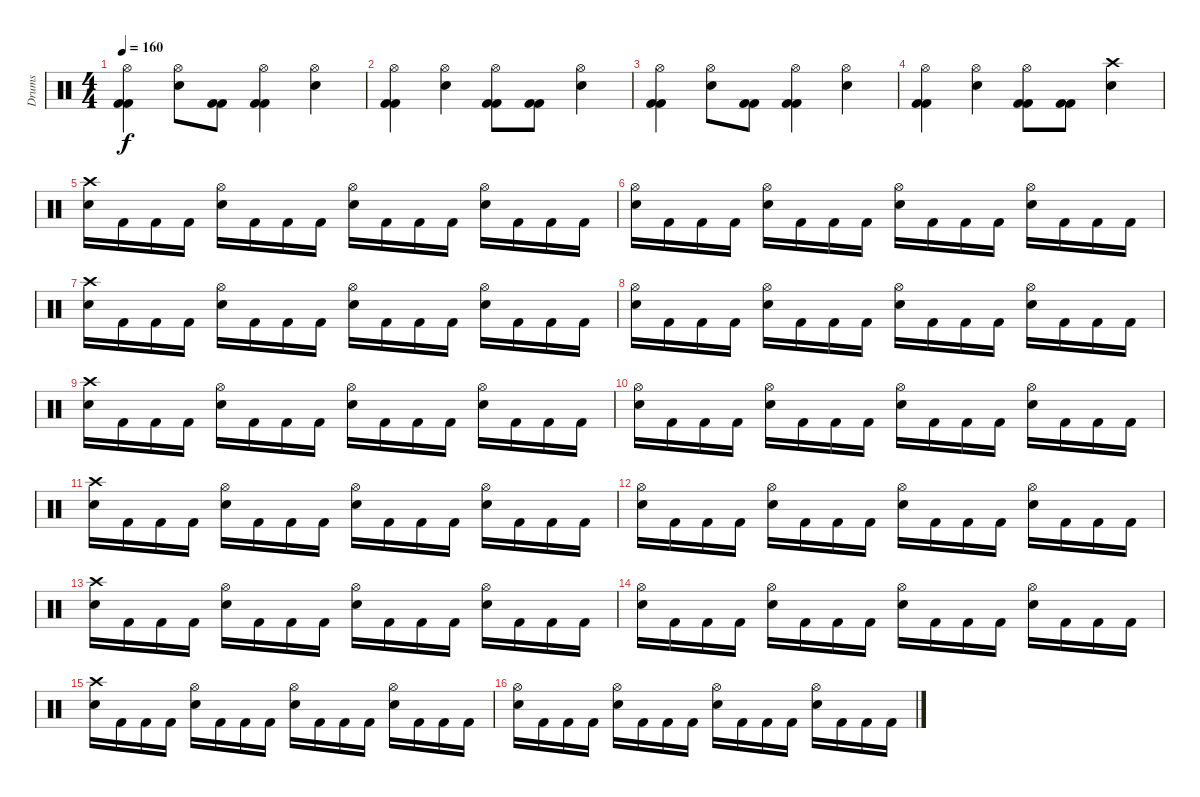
\track ("Drums" "Drums") {instrument percussion}
\staff {score}
\articulation defaults
\ts (4 4)
\tempo 160
\clef neutral
\ks c
("Hi-Hat (open)" "Kick (hit) 2" "Kick (hit) 2").4{dy f} ("Electric Snare (hit)" "Hi-Hat (open)").8 ("Kick (hit) 2" "Kick (hit) 2").8 ("Hi-Hat (open)" "Kick (hit) 2" "Kick (hit) 2").4 ("Electric Snare (hit)" "Hi-Hat (open)").4 |
("Hi-Hat (open)" "Kick (hit) 2" "Kick (hit) 2").4 ("Electric Snare (hit)" "Hi-Hat (open)").4 ("Hi-Hat (open)" "Kick (hit) 2" "Kick (hit) 2").8 ("Kick (hit) 2" "Kick (hit) 2").8 ("Hi-Hat (open)" "Electric Snare (hit)").4 |
("Hi-Hat (open)" "Kick (hit) 2" "Kick (hit) 2").4 ("Electric Snare (hit)" "Hi-Hat (open)").8 ("Kick (hit) 2" "Kick (hit) 2").8 ("Hi-Hat (open)" "Kick (hit) 2" "Kick (hit) 2").4 ("Electric Snare (hit)" "Hi-Hat (open)").4 |
("Hi-Hat (open)" "Kick (hit) 2" "Kick (hit) 2").4 ("Electric Snare (hit)" "Hi-Hat (open)").4 ("Hi-Hat (open)" "Kick (hit) 2" "Kick (hit) 2").8 ("Kick (hit) 2" "Kick (hit) 2").8 ("Crash high (hit)" "Electric Snare (hit)").4 |
("Crash high (hit)" "Electric Snare (hit)").16 "Kick (hit) 2".16 "Kick (hit) 2".16 "Kick (hit) 2".16 ("Electric Snare (hit)" "Hi-Hat (open)").16 "Kick (hit) 2".16 "Kick (hit) 2".16 "Kick (hit) 2".16 ("Hi-Hat (open)" "Electric Snare (hit)").16 "Kick (hit) 2".16 "Kick (hit) 2".16 "Kick (hit) 2".16 ("Electric Snare (hit)" "Hi-Hat (open)").16 "Kick (hit) 2".16 "Kick (hit) 2".16 "Kick (hit) 2".16 |
("Hi-Hat (open)" "Electric Snare (hit)").16 "Kick (hit) 2".16 "Kick (hit) 2".16 "Kick (hit) 2".16 ("Electric Snare (hit)" "Hi-Hat (open)").16 "Kick (hit) 2".16 "Kick (hit) 2".16 "Kick (hit) 2".16 ("Hi-Hat (open)" "Electric Snare (hit)").16 "Kick (hit) 2".16 "Kick (hit) 2".16 "Kick (hit) 2".16 ("Electric Snare (hit)" "Hi-Hat (open)").16 "Kick (hit) 2".16 "Kick (hit) 2".16 "Kick (hit) 2".16 |
("Crash high (hit)" "Electric Snare (hit)").16 "Kick (hit) 2".16 "Kick (hit) 2".16 "Kick (hit) 2".16 ("Electric Snare (hit)" "Hi-Hat (open)").16 "Kick (hit) 2".16 "Kick (hit) 2".16 "Kick (hit) 2".16 ("Hi-Hat (open)" "Electric Snare (hit)").16 "Kick (hit) 2".16 "Kick (hit) 2".16 "Kick (hit) 2".16 ("Electric Snare (hit)" "Hi-Hat (open)").16 "Kick (hit) 2".16 "Kick (hit) 2".16 "Kick (hit) 2".16 |
("Hi-Hat (open)" "Electric Snare (hit)").16 "Kick (hit) 2".16 "Kick (hit) 2".16 "Kick (hit) 2".16 ("Electric Snare (hit)" "Hi-Hat (open)").16 "Kick (hit) 2".16 "Kick (hit) 2".16 "Kick (hit) 2".16 ("Hi-Hat (open)" "Electric Snare (hit)").16 "Kick (hit) 2".16 "Kick (hit) 2".16 "Kick (hit) 2".16 ("Electric Snare (hit)" "Hi-Hat (open)").16 "Kick (hit) 2".16 "Kick (hit) 2".16 "Kick (hit) 2".16 |
("Crash high (hit)" "Electric Snare (hit)").16 "Kick (hit) 2".16 "Kick (hit) 2".16 "Kick (hit) 2".16 ("Electric Snare (hit)" "Hi-Hat (open)").16 "Kick (hit) 2".16 "Kick (hit) 2".16 "Kick (hit) 2".16 ("Hi-Hat (open)" "Electric Snare (hit)").16 "Kick (hit) 2".16 "Kick (hit) 2".16 "Kick (hit) 2".16 ("Electric Snare (hit)" "Hi-Hat (open)").16 "Kick (hit) 2".16 "Kick (hit) 2".16 "Kick (hit) 2".16 |
("Hi-Hat (open)" "Electric Snare (hit)").16 "Kick (hit) 2".16 "Kick (hit) 2".16 "Kick (hit) 2".16 ("Electric Snare (hit)" "Hi-Hat (open)").16 "Kick (hit) 2".16 "Kick (hit) 2".16 "Kick (hit) 2".16 ("Hi-Hat (open)" "Electric Snare (hit)").16 "Kick (hit) 2".16 "Kick (hit) 2".16 "Kick (hit) 2".16 ("Electric Snare (hit)" "Hi-Hat (open)").16 "Kick (hit) 2".16 "Kick (hit) 2".16 "Kick (hit) 2".16 |
("Crash high (hit)" "Electric Snare (hit)").16 "Kick (hit) 2".16 "Kick (hit) 2".16 "Kick (hit) 2".16 ("Electric Snare (hit)" "Hi-Hat (open)").16 "Kick (hit) 2".16 "Kick (hit) 2".16 "Kick (hit) 2".16 ("Hi-Hat (open)" "Electric Snare (hit)").16 "Kick (hit) 2".16 "Kick (hit) 2".16 "Kick (hit) 2".16 ("Electric Snare (hit)" "Hi-Hat (open)").16 "Kick (hit) 2".16 "Kick (hit) 2".16 "Kick (hit) 2".16 |
("Hi-Hat (open)" "Electric Snare (hit)").16 "Kick (hit) 2".16 "Kick (hit) 2".16 "Kick (hit) 2".16 ("Electric Snare (hit)" "Hi-Hat (open)").16 "Kick (hit) 2".16 "Kick (hit) 2".16 "Kick (hit) 2".16 ("Hi-Hat (open)" "Electric Snare (hit)").16 "Kick (hit) 2".16 "Kick (hit) 2".16 "Kick (hit) 2".16 ("Electric Snare (hit)" "Hi-Hat (open)").16 "Kick (hit) 2".16 "Kick (hit) 2".16 "Kick (hit) 2".16 |
("Crash high (hit)" "Electric Snare (hit)").16 "Kick (hit) 2".16 "Kick (hit) 2".16 "Kick (hit) 2".16 ("Electric Snare (hit)" "Hi-Hat (open)").16 "Kick (hit) 2".16 "Kick (hit) 2".16 "Kick (hit) 2".16 ("Hi-Hat (open)" "Electric Snare (hit)").16 "Kick (hit) 2".16 "Kick (hit) 2".16 "Kick (hit) 2".16 ("Electric Snare (hit)" "Hi-Hat (open)").16 "Kick (hit) 2".16 "Kick (hit) 2".16 "Kick (hit) 2".16 |
("Hi-Hat (open)" "Electric Snare (hit)").16 "Kick (hit) 2".16 "Kick (hit) 2".16 "Kick (hit) 2".16 ("Electric Snare (hit)" "Hi-Hat (open)").16 "Kick (hit) 2".16 "Kick (hit) 2".16 "Kick (hit) 2".16 ("Hi-Hat (open)" "Electric Snare (hit)").16 "Kick (hit) 2".16 "Kick (hit) 2".16 "Kick (hit) 2".16 ("Electric Snare (hit)" "Hi-Hat (open)").16 "Kick (hit) 2".16 "Kick (hit) 2".16 "Kick (hit) 2".16 |
("Crash high (hit)" "Electric Snare (hit)").16 "Kick (hit) 2".16 "Kick (hit) 2".16 "Kick (hit) 2".16 ("Electric Snare (hit)" "Hi-Hat (open)").16 "Kick (hit) 2".16 "Kick (hit) 2".16 "Kick (hit) 2".16 ("Hi-Hat (open)" "Electric Snare (hit)").16 "Kick (hit) 2".16 "Kick (hit) 2".16 "Kick (hit) 2".16 ("Electric Snare (hit)" "Hi-Hat (open)").16 "Kick (hit) 2".16 "Kick (hit) 2".16 "Kick (hit) 2".16 |
("Hi-Hat (open)" "Electric Snare (hit)").16 "Kick (hit) 2".16 "Kick (hit) 2".16 "Kick (hit) 2".16 ("Electric Snare (hit)" "Hi-Hat (open)").16 "Kick (hit) 2".16 "Kick (hit) 2".16 "Kick (hit) 2".16 ("Hi-Hat (open)" "Electric Snare (hit)").16 "Kick (hit) 2".16 "Kick (hit) 2".16 "Kick (hit) 2".16 ("Electric Snare (hit)" "Hi-Hat (open)").16 "Kick (hit) 2".16 "Kick (hit) 2".16 "Kick (hit) 2".16
